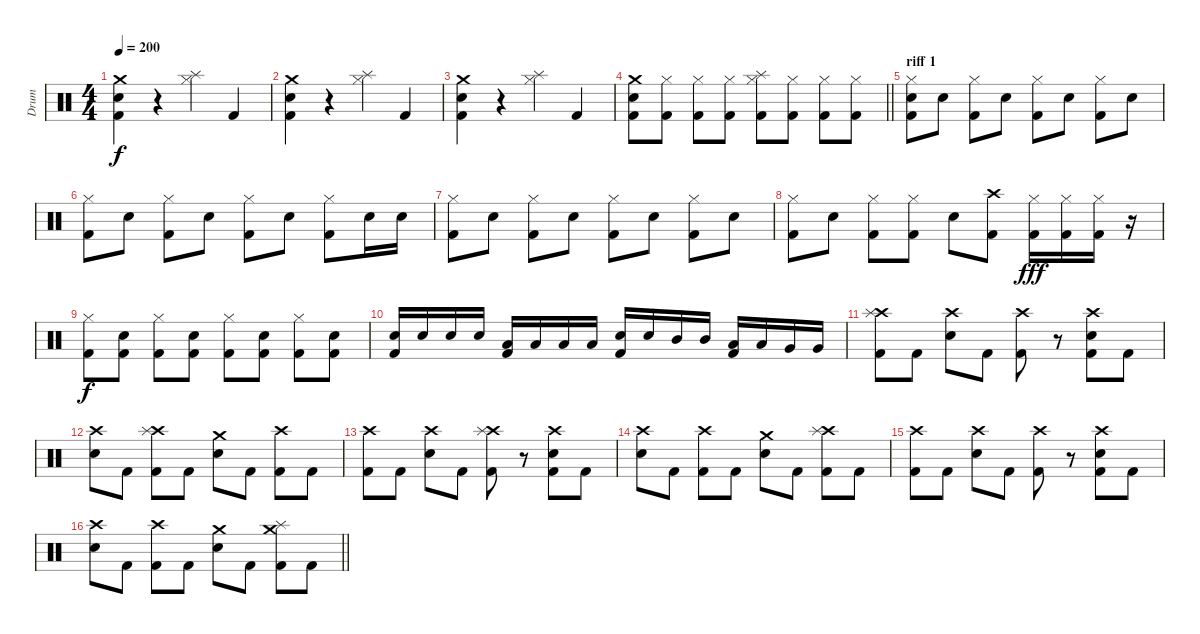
\track ("Drum" "Drum") {instrument percussion}
\staff {score}
\articulation defaults
\ts (4 4)
\tempo 200
\clef neutral
\ks c
("Crash medium (hit)" "Electric Snare (hit)" "Kick (hit) 2").4{dy f} r.4 ("Splash (hit)" "Hi-Hat (closed)").4 "Kick (hit) 2".4 |
("Crash medium (hit)" "Electric Snare (hit)" "Kick (hit) 2").4 r.4 ("Splash (hit)" "Hi-Hat (closed)").4 "Kick (hit) 2".4 |
("Crash medium (hit)" "Electric Snare (hit)" "Kick (hit) 2").4 r.4 ("Splash (hit)" "Hi-Hat (closed)").4 "Kick (hit) 2".4 |
\barLineRight lightlight
("Crash medium (hit)" "Electric Snare (hit)" "Kick (hit) 2").8 ("Hi-Hat (closed)" "Kick (hit) 2").8 ("Hi-Hat (closed)" "Kick (hit) 2").8 ("Hi-Hat (closed)" "Kick (hit) 2").8 ("Splash (hit)" "Hi-Hat (closed)" "Kick (hit) 2").8 ("Hi-Hat (closed)" "Kick (hit) 2").8 ("Hi-Hat (closed)" "Kick (hit) 2").8 ("Hi-Hat (closed)" "Kick (hit) 2").8 |
\section ("" "riff 1")
("Hi-Hat (closed)" "Electric Snare (hit)" "Kick (hit) 2").8 "Electric Snare (hit)".8 ("Hi-Hat (closed)" "Kick (hit) 2").8 "Electric Snare (hit)".8 ("Hi-Hat (closed)" "Kick (hit) 2").8 "Electric Snare (hit)".8 ("Hi-Hat (closed)" "Kick (hit) 2").8 "Electric Snare (hit)".8 |
("Hi-Hat (closed)" "Kick (hit) 2").8 "Electric Snare (hit)".8 ("Hi-Hat (closed)" "Kick (hit) 2").8 "Electric Snare (hit)".8 ("Hi-Hat (closed)" "Kick (hit) 2").8 "Electric Snare (hit)".8 ("Hi-Hat (closed)" "Kick (hit) 2").8 "Electric Snare (hit)".16 "Electric Snare (hit)".16 |
("Hi-Hat (closed)" "Kick (hit) 2").8 "Electric Snare (hit)".8 ("Hi-Hat (closed)" "Kick (hit) 2").8 "Electric Snare (hit)".8 ("Hi-Hat (closed)" "Kick (hit) 2").8 "Electric Snare (hit)".8 ("Hi-Hat (closed)" "Kick (hit) 2").8 "Electric Snare (hit)".8 |
("Hi-Hat (closed)" "Kick (hit) 2").8 "Electric Snare (hit)".8 ("Hi-Hat (closed)" "Kick (hit) 2").8 ("Hi-Hat (closed)" "Kick (hit) 2").8 "Electric Snare (hit)".8 ("Crash high (hit)" "Kick (hit) 2").8 ("Hi-Hat (closed)" "Kick (hit) 2").16{dy fff} ("Hi-Hat (closed)" "Kick (hit) 2").16 ("Hi-Hat (closed)" "Kick (hit) 2").16 r.16 |
("Hi-Hat (closed)" "Kick (hit) 2").8{dy f} ("Electric Snare (hit)" "Kick (hit) 2").8 ("Hi-Hat (closed)" "Kick (hit) 2").8 ("Electric Snare (hit)" "Kick (hit) 2").8 ("Hi-Hat (closed)" "Kick (hit) 2").8 ("Electric Snare (hit)" "Kick (hit) 2").8 ("Hi-Hat (closed)" "Kick (hit) 2").8 ("Electric Snare (hit)" "Kick (hit) 2").8 |
("Electric Snare (hit)" "Kick (hit) 2").16 "Electric Snare (hit)".16 "Electric Snare (hit)".16 "Electric Snare (hit)".16 ("Low Tom (hit)" "Kick (hit) 2").16 "Low Tom (hit)".16 "Low Tom (hit)".16 "Low Tom (hit)".16 ("Electric Snare (hit)" "Kick (hit) 2").16 "Electric Snare (hit)".16 "Mid Tom (hit)".16 "Mid Tom (hit)".16 ("Low Tom (hit)" "Kick (hit) 2").16 "Low Tom (hit)".16 "Very Low Tom (hit)".16 "Very Low Tom (hit)".16 |
("Crash high (hit)" "Splash (hit)" "Kick (hit) 2").8 "Kick (hit) 2".8 ("Crash high (hit)" "Electric Snare (hit)").8 "Kick (hit) 2".8 ("Crash high (hit)" "Kick (hit) 2").8 r.8 ("Crash high (hit)" "Electric Snare (hit)" "Kick (hit) 2").8 "Kick (hit) 2".8 |
("Crash high (hit)" "Electric Snare (hit)").8 "Kick (hit) 2".8 ("Crash high (hit)" "Splash (hit)" "Kick (hit) 2").8 "Kick (hit) 2".8 ("Crash medium (hit)" "Electric Snare (hit)").8 "Kick (hit) 2".8 ("Crash high (hit)" "Kick (hit) 2").8 "Kick (hit) 2".8 |
("Crash high (hit)" "Kick (hit) 2").8 "Kick (hit) 2".8 ("Crash high (hit)" "Electric Snare (hit)").8 "Kick (hit) 2".8 ("Crash high (hit)" "Splash (hit)" "Kick (hit) 2").8 r.8 ("Crash high (hit)" "Electric Snare (hit)" "Kick (hit) 2").8 "Kick (hit) 2".8 |
("Crash high (hit)" "Electric Snare (hit)").8 "Kick (hit) 2".8 ("Crash high (hit)" "Kick (hit) 2").8 "Kick (hit) 2".8 ("Crash medium (hit)" "Electric Snare (hit)").8 "Kick (hit) 2".8 ("Crash high (hit)" "Splash (hit)" "Kick (hit) 2").8 "Kick (hit) 2".8 |
("Crash high (hit)" "Kick (hit) 2").8 "Kick (hit) 2".8 ("Crash high (hit)" "Electric Snare (hit)").8 "Kick (hit) 2".8 ("Crash high (hit)" "Kick (hit) 2").8 r.8 ("Crash high (hit)" "Electric Snare (hit)" "Kick (hit) 2").8 "Kick (hit) 2".8 |
\barLineRight lightlight
("Crash high (hit)" "Electric Snare (hit)").8 "Kick (hit) 2".8 ("Crash high (hit)" "Kick (hit) 2").8 "Kick (hit) 2".8 ("Crash medium (hit)" "Electric Snare (hit)").8 "Kick (hit) 2".8 ("Crash medium (hit)" "Splash (hit)" "Kick (hit) 2").8 "Kick (hit) 2".8
